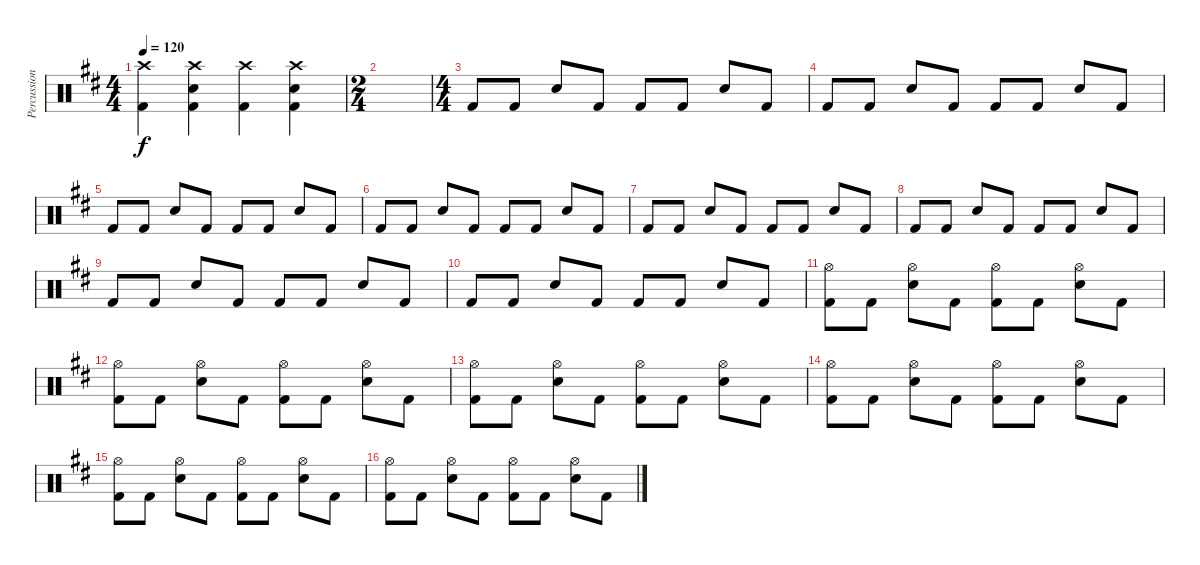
\track ("Percussion" "Percussion") {instrument percussion}
\staff {score}
\articulation defaults
\ts (4 4)
\tempo 120
\clef neutral
\ks d
("Crash high (hit)" "Kick (hit) 2").4{dy f} ("Crash high (hit)" "Snare (hit) 2" "Kick (hit) 2").4 ("Crash high (hit)" "Kick (hit) 2").4 ("Crash high (hit)" "Snare (hit) 2" "Kick (hit) 2").4 |
\ts (2 4)
|
\ts (4 4)
"Kick (hit) 2".8 "Kick (hit) 2".8 "Snare (hit) 2".8 "Kick (hit) 2".8 "Kick (hit) 2".8 "Kick (hit) 2".8 "Snare (hit) 2".8 "Kick (hit) 2".8 |
"Kick (hit) 2".8 "Kick (hit) 2".8 "Snare (hit) 2".8 "Kick (hit) 2".8 "Kick (hit) 2".8 "Kick (hit) 2".8 "Snare (hit) 2".8 "Kick (hit) 2".8 |
"Kick (hit) 2".8 "Kick (hit) 2".8 "Snare (hit) 2".8 "Kick (hit) 2".8 "Kick (hit) 2".8 "Kick (hit) 2".8 "Snare (hit) 2".8 "Kick (hit) 2".8 |
"Kick (hit) 2".8 "Kick (hit) 2".8 "Snare (hit) 2".8 "Kick (hit) 2".8 "Kick (hit) 2".8 "Kick (hit) 2".8 "Snare (hit) 2".8 "Kick (hit) 2".8 |
"Kick (hit) 2".8 "Kick (hit) 2".8 "Snare (hit) 2".8 "Kick (hit) 2".8 "Kick (hit) 2".8 "Kick (hit) 2".8 "Snare (hit) 2".8 "Kick (hit) 2".8 |
"Kick (hit) 2".8 "Kick (hit) 2".8 "Snare (hit) 2".8 "Kick (hit) 2".8 "Kick (hit) 2".8 "Kick (hit) 2".8 "Snare (hit) 2".8 "Kick (hit) 2".8 |
"Kick (hit) 2".8 "Kick (hit) 2".8 "Snare (hit) 2".8 "Kick (hit) 2".8 "Kick (hit) 2".8 "Kick (hit) 2".8 "Snare (hit) 2".8 "Kick (hit) 2".8 |
"Kick (hit) 2".8 "Kick (hit) 2".8 "Snare (hit) 2".8 "Kick (hit) 2".8 "Kick (hit) 2".8 "Kick (hit) 2".8 "Snare (hit) 2".8 "Kick (hit) 2".8 |
("Hi-Hat (open)" "Kick (hit) 2").8 "Kick (hit) 2".8 ("Hi-Hat (open)" "Snare (hit) 2").8 "Kick (hit) 2".8 ("Hi-Hat (open)" "Kick (hit) 2").8 "Kick (hit) 2".8 ("Hi-Hat (open)" "Snare (hit) 2").8 "Kick (hit) 2".8 |
("Hi-Hat (open)" "Kick (hit) 2").8 "Kick (hit) 2".8 ("Hi-Hat (open)" "Snare (hit) 2").8 "Kick (hit) 2".8 ("Hi-Hat (open)" "Kick (hit) 2").8 "Kick (hit) 2".8 ("Hi-Hat (open)" "Snare (hit) 2").8 "Kick (hit) 2".8 |
("Hi-Hat (open)" "Kick (hit) 2").8 "Kick (hit) 2".8 ("Hi-Hat (open)" "Snare (hit) 2").8 "Kick (hit) 2".8 ("Hi-Hat (open)" "Kick (hit) 2").8 "Kick (hit) 2".8 ("Hi-Hat (open)" "Snare (hit) 2").8 "Kick (hit) 2".8 |
("Hi-Hat (open)" "Kick (hit) 2").8 "Kick (hit) 2".8 ("Hi-Hat (open)" "Snare (hit) 2").8 "Kick (hit) 2".8 ("Hi-Hat (open)" "Kick (hit) 2").8 "Kick (hit) 2".8 ("Hi-Hat (open)" "Snare (hit) 2").8 "Kick (hit) 2".8 |
("Hi-Hat (open)" "Kick (hit) 2").8 "Kick (hit) 2".8 ("Hi-Hat (open)" "Snare (hit) 2").8 "Kick (hit) 2".8 ("Hi-Hat (open)" "Kick (hit) 2").8 "Kick (hit) 2".8 ("Hi-Hat (open)" "Snare (hit) 2").8 "Kick (hit) 2".8 |
("Hi-Hat (open)" "Kick (hit) 2").8 "Kick (hit) 2".8 ("Hi-Hat (open)" "Snare (hit) 2").8 "Kick (hit) 2".8 ("Hi-Hat (open)" "Kick (hit) 2").8 "Kick (hit) 2".8 ("Hi-Hat (open)" "Snare (hit) 2").8 "Kick (hit) 2".8
